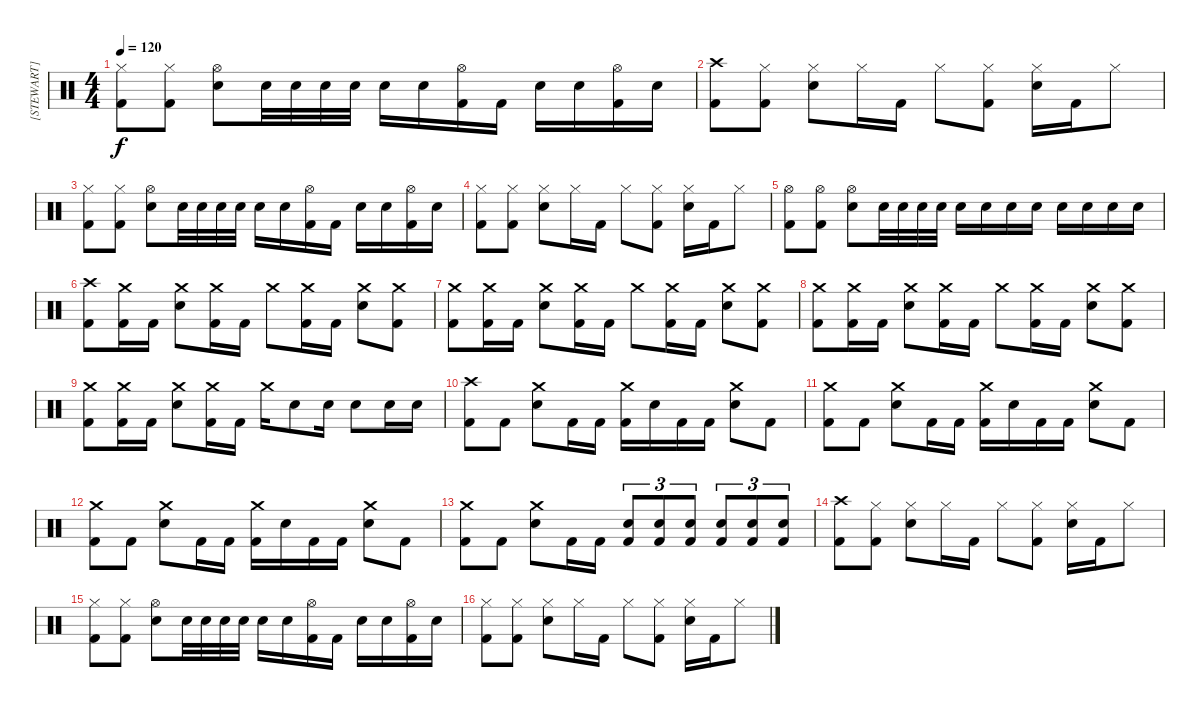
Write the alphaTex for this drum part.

\track ("[STEWART]" "[STEWART]") {instrument percussion}
\staff {score}
\articulation defaults
\ts (4 4)
\tempo 120
\clef neutral
\ks c
("Hi-Hat (closed)" "Kick (hit) 2").8{dy f} ("Hi-Hat (closed)" "Kick (hit) 2").8 ("Hi-Hat (open)" "Electric Snare (hit)").8 "Electric Snare (hit)".32 "Electric Snare (hit)".32 "Electric Snare (hit)".32 "Electric Snare (hit)".32 "Electric Snare (hit)".16 "Electric Snare (hit)".16 ("Hi-Hat (open)" "Kick (hit) 2").16 "Kick (hit) 2".16 "Electric Snare (hit)".16 "Electric Snare (hit)".16 ("Hi-Hat (open)" "Kick (hit) 2").16 "Electric Snare (hit)".16 |
("Crash high (hit)" "Kick (hit) 2").8 ("Hi-Hat (closed)" "Kick (hit) 2").8 ("Hi-Hat (closed)" "Electric Snare (hit)").8 "Hi-Hat (closed)".16 "Kick (hit) 2".16 "Hi-Hat (closed)".8 ("Hi-Hat (closed)" "Kick (hit) 2").8 ("Hi-Hat (closed)" "Electric Snare (hit)").16 "Kick (hit) 2".16 "Hi-Hat (closed)".8 |
("Hi-Hat (closed)" "Kick (hit) 2").8 ("Hi-Hat (closed)" "Kick (hit) 2").8 ("Hi-Hat (open)" "Electric Snare (hit)").8 "Electric Snare (hit)".32 "Electric Snare (hit)".32 "Electric Snare (hit)".32 "Electric Snare (hit)".32 "Electric Snare (hit)".16 "Electric Snare (hit)".16 ("Hi-Hat (open)" "Kick (hit) 2").16 "Kick (hit) 2".16 "Electric Snare (hit)".16 "Electric Snare (hit)".16 ("Hi-Hat (open)" "Kick (hit) 2").16 "Electric Snare (hit)".16 |
("Hi-Hat (closed)" "Kick (hit) 2").8 ("Hi-Hat (closed)" "Kick (hit) 2").8 ("Hi-Hat (closed)" "Electric Snare (hit)").8 "Hi-Hat (closed)".16 "Kick (hit) 2".16 "Hi-Hat (closed)".8 ("Hi-Hat (closed)" "Kick (hit) 2").8 ("Hi-Hat (closed)" "Electric Snare (hit)").16 "Kick (hit) 2".16 "Hi-Hat (closed)".8 |
("Hi-Hat (open)" "Kick (hit) 2").8 ("Hi-Hat (open)" "Kick (hit) 2").8 ("Hi-Hat (open)" "Electric Snare (hit)").8 "Electric Snare (hit)".32 "Electric Snare (hit)".32 "Electric Snare (hit)".32 "Electric Snare (hit)".32 "Electric Snare (hit)".16 "Electric Snare (hit)".16 "Electric Snare (hit)".16 "Electric Snare (hit)".16 "Electric Snare (hit)".16 "Electric Snare (hit)".16 "Electric Snare (hit)".16 "Electric Snare (hit)".16 |
("Crash high (hit)" "Kick (hit) 2").8 ("Crash medium (hit)" "Kick (hit) 2").16 "Kick (hit) 2".16 ("Crash medium (hit)" "Electric Snare (hit)").8 ("Crash medium (hit)" "Kick (hit) 2").16 "Kick (hit) 2".16 "Crash medium (hit)".8 ("Crash medium (hit)" "Kick (hit) 2").16 "Kick (hit) 2".16 ("Crash medium (hit)" "Electric Snare (hit)").8 ("Crash medium (hit)" "Kick (hit) 2").8 |
("Crash medium (hit)" "Kick (hit) 2").8 ("Crash medium (hit)" "Kick (hit) 2").16 "Kick (hit) 2".16 ("Crash medium (hit)" "Electric Snare (hit)").8 ("Crash medium (hit)" "Kick (hit) 2").16 "Kick (hit) 2".16 "Crash medium (hit)".8 ("Crash medium (hit)" "Kick (hit) 2").16 "Kick (hit) 2".16 ("Crash medium (hit)" "Electric Snare (hit)").8 ("Crash medium (hit)" "Kick (hit) 2").8 |
("Crash medium (hit)" "Kick (hit) 2").8 ("Crash medium (hit)" "Kick (hit) 2").16 "Kick (hit) 2".16 ("Crash medium (hit)" "Electric Snare (hit)").8 ("Crash medium (hit)" "Kick (hit) 2").16 "Kick (hit) 2".16 "Crash medium (hit)".8 ("Crash medium (hit)" "Kick (hit) 2").16 "Kick (hit) 2".16 ("Crash medium (hit)" "Electric Snare (hit)").8 ("Crash medium (hit)" "Kick (hit) 2").8 |
("Crash medium (hit)" "Kick (hit) 2").8 ("Crash medium (hit)" "Kick (hit) 2").16 "Kick (hit) 2".16 ("Crash medium (hit)" "Electric Snare (hit)").8 ("Crash medium (hit)" "Kick (hit) 2").16 "Kick (hit) 2".16 "Crash medium (hit)".16 "Electric Snare (hit)".8 "Electric Snare (hit)".16 "Electric Snare (hit)".8 "Electric Snare (hit)".16 "Electric Snare (hit)".16 |
("Crash high (hit)" "Kick (hit) 2").8 "Kick (hit) 2".8 ("Crash medium (hit)" "Electric Snare (hit)").8 "Kick (hit) 2".16 "Kick (hit) 2".16 ("Crash medium (hit)" "Kick (hit) 2").16 "Electric Snare (hit)".16 "Kick (hit) 2".16 "Kick (hit) 2".16 ("Crash medium (hit)" "Electric Snare (hit)").8 "Kick (hit) 2".8 |
("Crash medium (hit)" "Kick (hit) 2").8 "Kick (hit) 2".8 ("Crash medium (hit)" "Electric Snare (hit)").8 "Kick (hit) 2".16 "Kick (hit) 2".16 ("Crash medium (hit)" "Kick (hit) 2").16 "Electric Snare (hit)".16 "Kick (hit) 2".16 "Kick (hit) 2".16 ("Crash medium (hit)" "Electric Snare (hit)").8 "Kick (hit) 2".8 |
("Crash medium (hit)" "Kick (hit) 2").8 "Kick (hit) 2".8 ("Crash medium (hit)" "Electric Snare (hit)").8 "Kick (hit) 2".16 "Kick (hit) 2".16 ("Crash medium (hit)" "Kick (hit) 2").16 "Electric Snare (hit)".16 "Kick (hit) 2".16 "Kick (hit) 2".16 ("Crash medium (hit)" "Electric Snare (hit)").8 "Kick (hit) 2".8 |
("Crash medium (hit)" "Kick (hit) 2").8 "Kick (hit) 2".8 ("Crash medium (hit)" "Electric Snare (hit)").8 "Kick (hit) 2".16 "Kick (hit) 2".16 ("Electric Snare (hit)" "Kick (hit) 2").8{tu (3 2)} ("Electric Snare (hit)" "Kick (hit) 2").8{tu (3 2)} ("Electric Snare (hit)" "Kick (hit) 2").8{tu (3 2)} ("Electric Snare (hit)" "Kick (hit) 2").8{tu (3 2)} ("Electric Snare (hit)" "Kick (hit) 2").8{tu (3 2)} ("Electric Snare (hit)" "Kick (hit) 2").8{tu (3 2)} |
("Crash high (hit)" "Kick (hit) 2").8 ("Hi-Hat (closed)" "Kick (hit) 2").8 ("Hi-Hat (closed)" "Electric Snare (hit)").8 "Hi-Hat (closed)".16 "Kick (hit) 2".16 "Hi-Hat (closed)".8 ("Hi-Hat (closed)" "Kick (hit) 2").8 ("Hi-Hat (closed)" "Electric Snare (hit)").16 "Kick (hit) 2".16 "Hi-Hat (closed)".8 |
("Hi-Hat (closed)" "Kick (hit) 2").8 ("Hi-Hat (closed)" "Kick (hit) 2").8 ("Hi-Hat (open)" "Electric Snare (hit)").8 "Electric Snare (hit)".32 "Electric Snare (hit)".32 "Electric Snare (hit)".32 "Electric Snare (hit)".32 "Electric Snare (hit)".16 "Electric Snare (hit)".16 ("Hi-Hat (open)" "Kick (hit) 2").16 "Kick (hit) 2".16 "Electric Snare (hit)".16 "Electric Snare (hit)".16 ("Hi-Hat (open)" "Kick (hit) 2").16 "Electric Snare (hit)".16 |
("Hi-Hat (closed)" "Kick (hit) 2").8 ("Hi-Hat (closed)" "Kick (hit) 2").8 ("Hi-Hat (closed)" "Electric Snare (hit)").8 "Hi-Hat (closed)".16 "Kick (hit) 2".16 "Hi-Hat (closed)".8 ("Hi-Hat (closed)" "Kick (hit) 2").8 ("Hi-Hat (closed)" "Electric Snare (hit)").16 "Kick (hit) 2".16 "Hi-Hat (closed)".8
